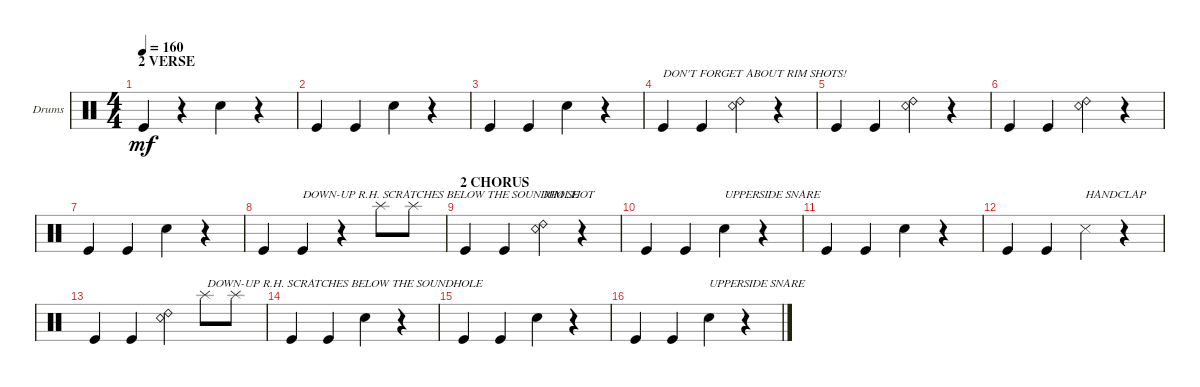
\defaultSystemsLayout 4
\bracketExtendMode groupsimilarinstruments
\firstSystemTrackNameOrientation horizontal
\otherSystemsTrackNameOrientation horizontal
\track ("Drumkit" "Drums") {instrument percussion}
\staff {score}
\articulation defaults
\ts (4 4)
\section ("" "2 VERSE")
\tempo 160
\clef neutral
\ks c "Kick (hit)".4{dy mf}
r.4 "Snare (hit) 2".4 r.4 |
"Kick (hit)".4 "Kick (hit)".4 "Snare (hit) 2".4 r.4 |
"Kick (hit)".4 "Kick (hit)".4 "Snare (hit) 2".4 r.4 |
"Kick (hit)".4{txt "DON'T FORGET ABOUT RIM SHOTS!"} "Kick (hit)".4 ("Snare (rim shot)" "Ride (bell) 2").4 r.4 |
"Kick (hit)".4 "Kick (hit)".4 ("Snare (rim shot)" "Ride (bell) 2").4 r.4 |
"Kick (hit)".4 "Kick (hit)".4 ("Snare (rim shot)" "Ride (bell) 2").4 r.4 |
"Kick (hit)".4 "Kick (hit)".4 "Snare (hit) 2".4 r.4 |
"Kick (hit)".4{txt "             DOWN-UP R.H. SCRATCHES BELOW THE SOUNDHOLE"} "Kick (hit)".4 r.4 "Splash (hit)".8 "Splash (hit)".8 |
\section ("" "2 CHORUS")
"Kick (hit)".4 "Kick (hit)".4 ("Snare (rim shot)" "Ride (bell) 2").4{txt "RIM SHOT"} r.4 |
"Kick (hit)".4 "Kick (hit)".4 "Snare (hit) 2".4{txt "UPPERSIDE SNARE"} r.4 |
"Kick (hit)".4 "Kick (hit)".4 "Snare (hit) 2".4 r.4 |
"Kick (hit)".4 "Kick (hit)".4 "Snare (side stick) 3".4{txt "HANDCLAP"} r.4 |
"Kick (hit)".4 "Kick (hit)".4 ("Snare (rim shot)" "Ride (bell) 2").4{txt "             DOWN-UP R.H. SCRATCHES BELOW THE SOUNDHOLE"} "Splash (hit)".8 "Splash (hit)".8 |
"Kick (hit)".4 "Kick (hit)".4 "Snare (hit) 2".4 r.4 |
"Kick (hit)".4 "Kick (hit)".4 "Snare (hit) 2".4 r.4 |
"Kick (hit)".4 "Kick (hit)".4 "Snare (hit) 2".4{txt "UPPERSIDE SNARE"} r.4
